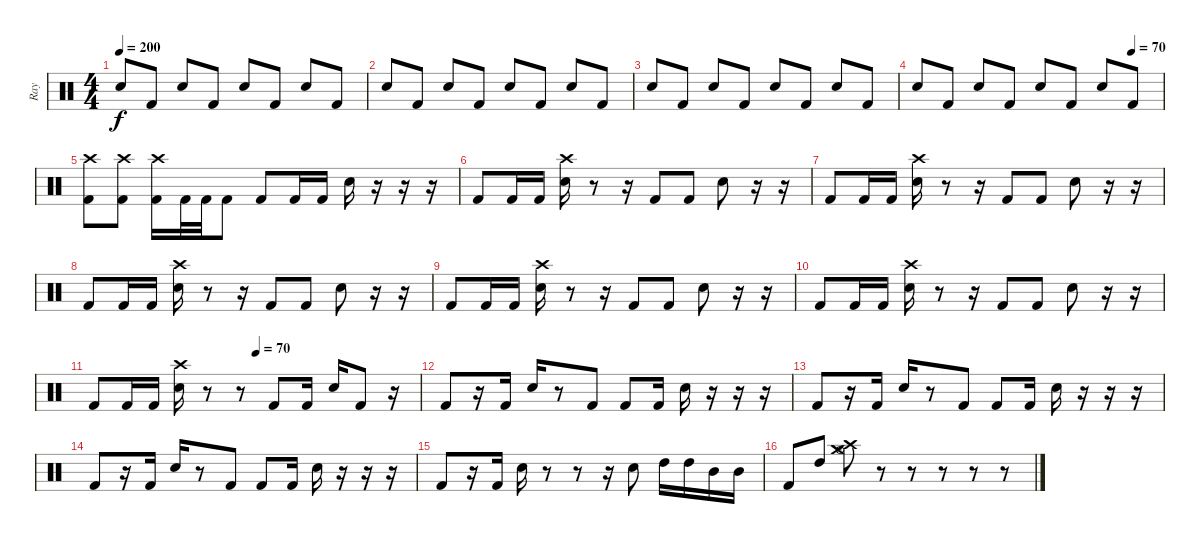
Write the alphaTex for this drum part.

\track ("Ray" "Ray") {instrument percussion}
\staff {score}
\articulation defaults
\ts (4 4)
\tempo 200
\clef neutral
\ks c "Electric Snare (hit)".8{dy f} "Kick (hit) 2".8 "Electric Snare (hit)".8 "Kick (hit) 2".8 "Electric Snare (hit)".8 "Kick (hit) 2".8 "Electric Snare (hit)".8 "Kick (hit) 2".8
|
"Electric Snare (hit)".8 "Kick (hit) 2".8 "Electric Snare (hit)".8 "Kick (hit) 2".8 "Electric Snare (hit)".8 "Kick (hit) 2".8 "Electric Snare (hit)".8 "Kick (hit) 2".8 |
"Electric Snare (hit)".8 "Kick (hit) 2".8 "Electric Snare (hit)".8 "Kick (hit) 2".8 "Electric Snare (hit)".8 "Kick (hit) 2".8 "Electric Snare (hit)".8 "Kick (hit) 2".8 |
\tempo (70 0.875)
"Electric Snare (hit)".8 "Kick (hit) 2".8 "Electric Snare (hit)".8 "Kick (hit) 2".8 "Electric Snare (hit)".8 "Kick (hit) 2".8 "Electric Snare (hit)".8 "Kick (hit) 2".8 |
("Crash high (hit)" "Kick (hit) 2").8 ("Crash high (hit)" "Kick (hit) 2").8 ("Crash high (hit)" "Kick (hit) 2").16 "Kick (hit) 2".32 "Kick (hit) 2".32 "Kick (hit) 2".8 "Kick (hit) 2".8 "Kick (hit) 2".16 "Kick (hit) 2".16 "Electric Snare (hit)".16 r.16 r.16 r.16 |
"Kick (hit) 2".8 "Kick (hit) 2".16 "Kick (hit) 2".16 ("Crash high (hit)" "Electric Snare (hit)").16 r.8 r.16 "Kick (hit) 2".8 "Kick (hit) 2".8 "Electric Snare (hit)".8 r.16 r.16 |
"Kick (hit) 2".8 "Kick (hit) 2".16 "Kick (hit) 2".16 ("Crash high (hit)" "Electric Snare (hit)").16 r.8 r.16 "Kick (hit) 2".8 "Kick (hit) 2".8 "Electric Snare (hit)".8 r.16 r.16 |
"Kick (hit) 2".8 "Kick (hit) 2".16 "Kick (hit) 2".16 ("Crash high (hit)" "Electric Snare (hit)").16 r.8 r.16 "Kick (hit) 2".8 "Kick (hit) 2".8 "Electric Snare (hit)".8 r.16 r.16 |
"Kick (hit) 2".8 "Kick (hit) 2".16 "Kick (hit) 2".16 ("Crash high (hit)" "Electric Snare (hit)").16 r.8 r.16 "Kick (hit) 2".8 "Kick (hit) 2".8 "Electric Snare (hit)".8 r.16 r.16 |
"Kick (hit) 2".8 "Kick (hit) 2".16 "Kick (hit) 2".16 ("Crash high (hit)" "Electric Snare (hit)").16 r.8 r.16 "Kick (hit) 2".8 "Kick (hit) 2".8 "Electric Snare (hit)".8 r.16 r.16 |
\tempo (70 0.5)
"Kick (hit) 2".8 "Kick (hit) 2".16 "Kick (hit) 2".16 ("Crash high (hit)" "Electric Snare (hit)").16 r.8 r.8 "Kick (hit) 2".8 "Kick (hit) 2".16 "Electric Snare (hit)".16 "Kick (hit) 2".8 r.16 |
"Kick (hit) 2".8 r.16 "Kick (hit) 2".16 "Electric Snare (hit)".16 r.8 "Kick (hit) 2".8 "Kick (hit) 2".8 "Kick (hit) 2".16 "Electric Snare (hit)".16 r.16 r.16 r.16 |
"Kick (hit) 2".8 r.16 "Kick (hit) 2".16 "Electric Snare (hit)".16 r.8 "Kick (hit) 2".8 "Kick (hit) 2".8 "Kick (hit) 2".16 "Electric Snare (hit)".16 r.16 r.16 r.16 |
"Kick (hit) 2".8 r.16 "Kick (hit) 2".16 "Electric Snare (hit)".16 r.8 "Kick (hit) 2".8 "Kick (hit) 2".8 "Kick (hit) 2".16 "Electric Snare (hit)".16 r.16 r.16 r.16 |
"Kick (hit) 2".8 r.16 "Kick (hit) 2".16 "Electric Snare (hit)".16 r.8 r.8 r.16 "Electric Snare (hit)".8 "High Tom (hit)".16 "High Tom (hit)".16 "Mid Tom (hit)".16 "Mid Tom (hit)".16 |
"Kick (hit) 2".8 "High Tom (hit)".8 ("Hi-Hat (open)" "Crash high (hit)" "Crash medium (hit)").8 r.8 r.8 r.8 r.8 r.8
